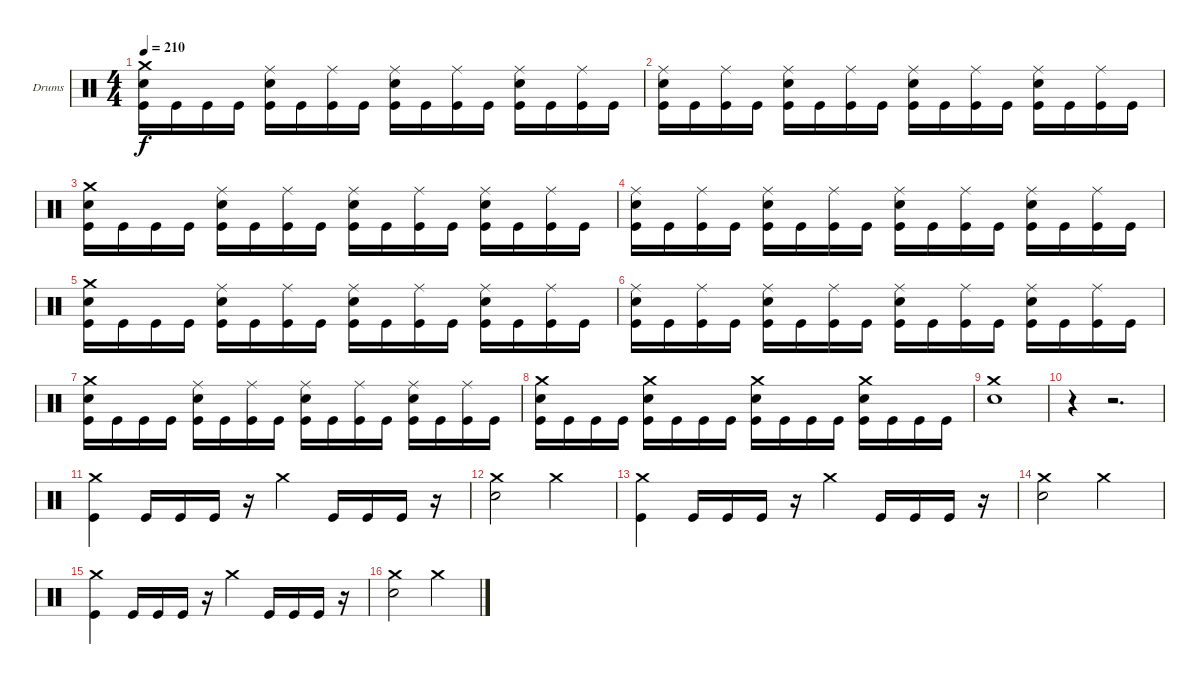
\bracketExtendMode groupsimilarinstruments
\firstSystemTrackNameOrientation horizontal
\otherSystemsTrackNameOrientation horizontal
\track ("Drumkit" "Drums") {instrument percussion}
\staff {score}
\articulation defaults
\ts (4 4)
\tempo 210
\clef neutral
\ks c
("Crash medium (hit)" "Snare (hit) 2" "Kick (hit)").16{dy f} "Kick (hit)".16 "Kick (hit)".16 "Kick (hit)".16 ("Ride (middle)" "Snare (hit) 2" "Kick (hit)").16 "Kick (hit)".16 ("Ride (middle)" "Kick (hit)").16 "Kick (hit)".16 ("Ride (middle)" "Snare (hit) 2" "Kick (hit)").16 "Kick (hit)".16 ("Ride (middle)" "Kick (hit)").16 "Kick (hit)".16 ("Ride (middle)" "Snare (hit) 2" "Kick (hit)").16 "Kick (hit)".16 ("Ride (middle)" "Kick (hit)").16 "Kick (hit)".16 |
("Ride (middle)" "Snare (hit) 2" "Kick (hit)").16 "Kick (hit)".16 ("Ride (middle)" "Kick (hit)").16 "Kick (hit)".16 ("Ride (middle)" "Snare (hit) 2" "Kick (hit)").16 "Kick (hit)".16 ("Ride (middle)" "Kick (hit)").16 "Kick (hit)".16 ("Ride (middle)" "Snare (hit) 2" "Kick (hit)").16 "Kick (hit)".16 ("Ride (middle)" "Kick (hit)").16 "Kick (hit)".16 ("Ride (middle)" "Snare (hit) 2" "Kick (hit)").16 "Kick (hit)".16 ("Ride (middle)" "Kick (hit)").16 "Kick (hit)".16 |
("Crash medium (hit)" "Snare (hit) 2" "Kick (hit)").16 "Kick (hit)".16 "Kick (hit)".16 "Kick (hit)".16 ("Ride (middle)" "Snare (hit) 2" "Kick (hit)").16 "Kick (hit)".16 ("Ride (middle)" "Kick (hit)").16 "Kick (hit)".16 ("Ride (middle)" "Snare (hit) 2" "Kick (hit)").16 "Kick (hit)".16 ("Ride (middle)" "Kick (hit)").16 "Kick (hit)".16 ("Ride (middle)" "Snare (hit) 2" "Kick (hit)").16 "Kick (hit)".16 ("Ride (middle)" "Kick (hit)").16 "Kick (hit)".16 |
("Ride (middle)" "Snare (hit) 2" "Kick (hit)").16 "Kick (hit)".16 ("Ride (middle)" "Kick (hit)").16 "Kick (hit)".16 ("Ride (middle)" "Snare (hit) 2" "Kick (hit)").16 "Kick (hit)".16 ("Ride (middle)" "Kick (hit)").16 "Kick (hit)".16 ("Ride (middle)" "Snare (hit) 2" "Kick (hit)").16 "Kick (hit)".16 ("Ride (middle)" "Kick (hit)").16 "Kick (hit)".16 ("Ride (middle)" "Snare (hit) 2" "Kick (hit)").16 "Kick (hit)".16 ("Ride (middle)" "Kick (hit)").16 "Kick (hit)".16 |
("Crash medium (hit)" "Snare (hit) 2" "Kick (hit)").16 "Kick (hit)".16 "Kick (hit)".16 "Kick (hit)".16 ("Ride (middle)" "Snare (hit) 2" "Kick (hit)").16 "Kick (hit)".16 ("Ride (middle)" "Kick (hit)").16 "Kick (hit)".16 ("Ride (middle)" "Snare (hit) 2" "Kick (hit)").16 "Kick (hit)".16 ("Ride (middle)" "Kick (hit)").16 "Kick (hit)".16 ("Ride (middle)" "Snare (hit) 2" "Kick (hit)").16 "Kick (hit)".16 ("Ride (middle)" "Kick (hit)").16 "Kick (hit)".16 |
("Ride (middle)" "Snare (hit) 2" "Kick (hit)").16 "Kick (hit)".16 ("Ride (middle)" "Kick (hit)").16 "Kick (hit)".16 ("Ride (middle)" "Snare (hit) 2" "Kick (hit)").16 "Kick (hit)".16 ("Ride (middle)" "Kick (hit)").16 "Kick (hit)".16 ("Ride (middle)" "Snare (hit) 2" "Kick (hit)").16 "Kick (hit)".16 ("Ride (middle)" "Kick (hit)").16 "Kick (hit)".16 ("Ride (middle)" "Snare (hit) 2" "Kick (hit)").16 "Kick (hit)".16 ("Ride (middle)" "Kick (hit)").16 "Kick (hit)".16 |
("Crash medium (hit)" "Snare (hit) 2" "Kick (hit)").16 "Kick (hit)".16 "Kick (hit)".16 "Kick (hit)".16 ("Ride (middle)" "Snare (hit) 2" "Kick (hit)").16 "Kick (hit)".16 ("Ride (middle)" "Kick (hit)").16 "Kick (hit)".16 ("Ride (middle)" "Snare (hit) 2" "Kick (hit)").16 "Kick (hit)".16 ("Ride (middle)" "Kick (hit)").16 "Kick (hit)".16 ("Ride (middle)" "Snare (hit) 2" "Kick (hit)").16 "Kick (hit)".16 ("Ride (middle)" "Kick (hit)").16 "Kick (hit)".16 |
("Crash medium (hit)" "Snare (hit) 2" "Kick (hit)").16 "Kick (hit)".16 "Kick (hit)".16 "Kick (hit)".16 ("Crash medium (hit)" "Snare (hit) 2" "Kick (hit)").16 "Kick (hit)".16 "Kick (hit)".16 "Kick (hit)".16 ("Crash medium (hit)" "Snare (hit) 2" "Kick (hit)").16 "Kick (hit)".16 "Kick (hit)".16 "Kick (hit)".16 ("Crash medium (hit)" "Snare (hit) 2" "Kick (hit)").16 "Kick (hit)".16 "Kick (hit)".16 "Kick (hit)".16 |
("Crash medium (hit)" "Snare (hit) 2").1 |
r.4 r.2{d} |
("Crash medium (hit)" "Kick (hit)").4 "Kick (hit)".16 "Kick (hit)".16 "Kick (hit)".16 r.16 "Crash medium (hit)".4 "Kick (hit)".16 "Kick (hit)".16 "Kick (hit)".16 r.16 |
("Crash medium (hit)" "Snare (hit) 2").2 "Crash medium (hit)".2 |
("Crash medium (hit)" "Kick (hit)").4 "Kick (hit)".16 "Kick (hit)".16 "Kick (hit)".16 r.16 "Crash medium (hit)".4 "Kick (hit)".16 "Kick (hit)".16 "Kick (hit)".16 r.16 |
("Crash medium (hit)" "Snare (hit) 2").2 "Crash medium (hit)".2 |
("Crash medium (hit)" "Kick (hit)").4 "Kick (hit)".16 "Kick (hit)".16 "Kick (hit)".16 r.16 "Crash medium (hit)".4 "Kick (hit)".16 "Kick (hit)".16 "Kick (hit)".16 r.16 |
("Crash medium (hit)" "Snare (hit) 2").2 "Crash medium (hit)".2
